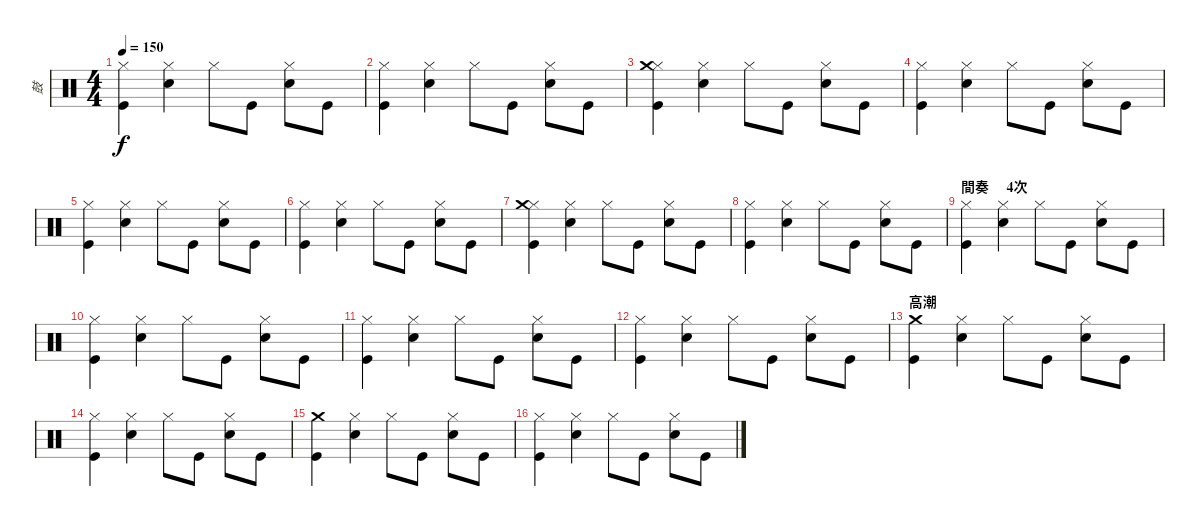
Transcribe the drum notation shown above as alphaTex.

\track ("鼓" "鼓") {instrument percussion}
\staff {score}
\articulation defaults
\ts (4 4)
\tempo 150
\clef neutral
\ks c
("Kick (hit)" "Hi-Hat (closed)").4{dy f} ("Snare (hit) 2" "Hi-Hat (closed)").4 "Hi-Hat (closed)".8 "Kick (hit)".8 ("Snare (hit) 2" "Hi-Hat (closed)").8 "Kick (hit)".8 |
("Kick (hit)" "Hi-Hat (closed)").4 ("Snare (hit) 2" "Hi-Hat (closed)").4 "Hi-Hat (closed)".8 "Kick (hit)".8 ("Snare (hit) 2" "Hi-Hat (closed)").8 "Kick (hit)".8 |
("Kick (hit)" "Hi-Hat (closed)" "Crash medium (hit)").4 ("Snare (hit) 2" "Hi-Hat (closed)").4 "Hi-Hat (closed)".8 "Kick (hit)".8 ("Snare (hit) 2" "Hi-Hat (closed)").8 "Kick (hit)".8 |
("Kick (hit)" "Hi-Hat (closed)").4 ("Snare (hit) 2" "Hi-Hat (closed)").4 "Hi-Hat (closed)".8 "Kick (hit)".8 ("Snare (hit) 2" "Hi-Hat (closed)").8 "Kick (hit)".8 |
("Kick (hit)" "Hi-Hat (closed)").4 ("Snare (hit) 2" "Hi-Hat (closed)").4 "Hi-Hat (closed)".8 "Kick (hit)".8 ("Snare (hit) 2" "Hi-Hat (closed)").8 "Kick (hit)".8 |
("Kick (hit)" "Hi-Hat (closed)").4 ("Snare (hit) 2" "Hi-Hat (closed)").4 "Hi-Hat (closed)".8 "Kick (hit)".8 ("Snare (hit) 2" "Hi-Hat (closed)").8 "Kick (hit)".8 |
("Kick (hit)" "Hi-Hat (closed)" "Crash medium (hit)").4 ("Snare (hit) 2" "Hi-Hat (closed)").4 "Hi-Hat (closed)".8 "Kick (hit)".8 ("Snare (hit) 2" "Hi-Hat (closed)").8 "Kick (hit)".8 |
("Kick (hit)" "Hi-Hat (closed)").4 ("Snare (hit) 2" "Hi-Hat (closed)").4 "Hi-Hat (closed)".8 "Kick (hit)".8 ("Snare (hit) 2" "Hi-Hat (closed)").8 "Kick (hit)".8 |
\section ("" "間奏     4次")
("Kick (hit)" "Hi-Hat (closed)").4 ("Snare (hit) 2" "Hi-Hat (closed)").4 "Hi-Hat (closed)".8 "Kick (hit)".8 ("Snare (hit) 2" "Hi-Hat (closed)").8 "Kick (hit)".8 |
("Kick (hit)" "Hi-Hat (closed)").4 ("Snare (hit) 2" "Hi-Hat (closed)").4 "Hi-Hat (closed)".8 "Kick (hit)".8 ("Snare (hit) 2" "Hi-Hat (closed)").8 "Kick (hit)".8 |
("Kick (hit)" "Hi-Hat (closed)").4 ("Snare (hit) 2" "Hi-Hat (closed)").4 "Hi-Hat (closed)".8 "Kick (hit)".8 ("Snare (hit) 2" "Hi-Hat (closed)").8 "Kick (hit)".8 |
("Kick (hit)" "Hi-Hat (closed)").4 ("Snare (hit) 2" "Hi-Hat (closed)").4 "Hi-Hat (closed)".8 "Kick (hit)".8 ("Snare (hit) 2" "Hi-Hat (closed)").8 "Kick (hit)".8 |
\section ("" "高潮")
("Kick (hit)" "Crash medium (hit)").4 ("Snare (hit) 2" "Hi-Hat (closed)").4 "Hi-Hat (closed)".8 "Kick (hit)".8 ("Snare (hit) 2" "Hi-Hat (closed)").8 "Kick (hit)".8 |
("Kick (hit)" "Hi-Hat (closed)").4 ("Snare (hit) 2" "Hi-Hat (closed)").4 "Hi-Hat (closed)".8 "Kick (hit)".8 ("Snare (hit) 2" "Hi-Hat (closed)").8 "Kick (hit)".8 |
("Kick (hit)" "Crash medium (hit)").4 ("Snare (hit) 2" "Hi-Hat (closed)").4 "Hi-Hat (closed)".8 "Kick (hit)".8 ("Snare (hit) 2" "Hi-Hat (closed)").8 "Kick (hit)".8 |
("Kick (hit)" "Hi-Hat (closed)").4 ("Snare (hit) 2" "Hi-Hat (closed)").4 "Hi-Hat (closed)".8 "Kick (hit)".8 ("Snare (hit) 2" "Hi-Hat (closed)").8 "Kick (hit)".8
